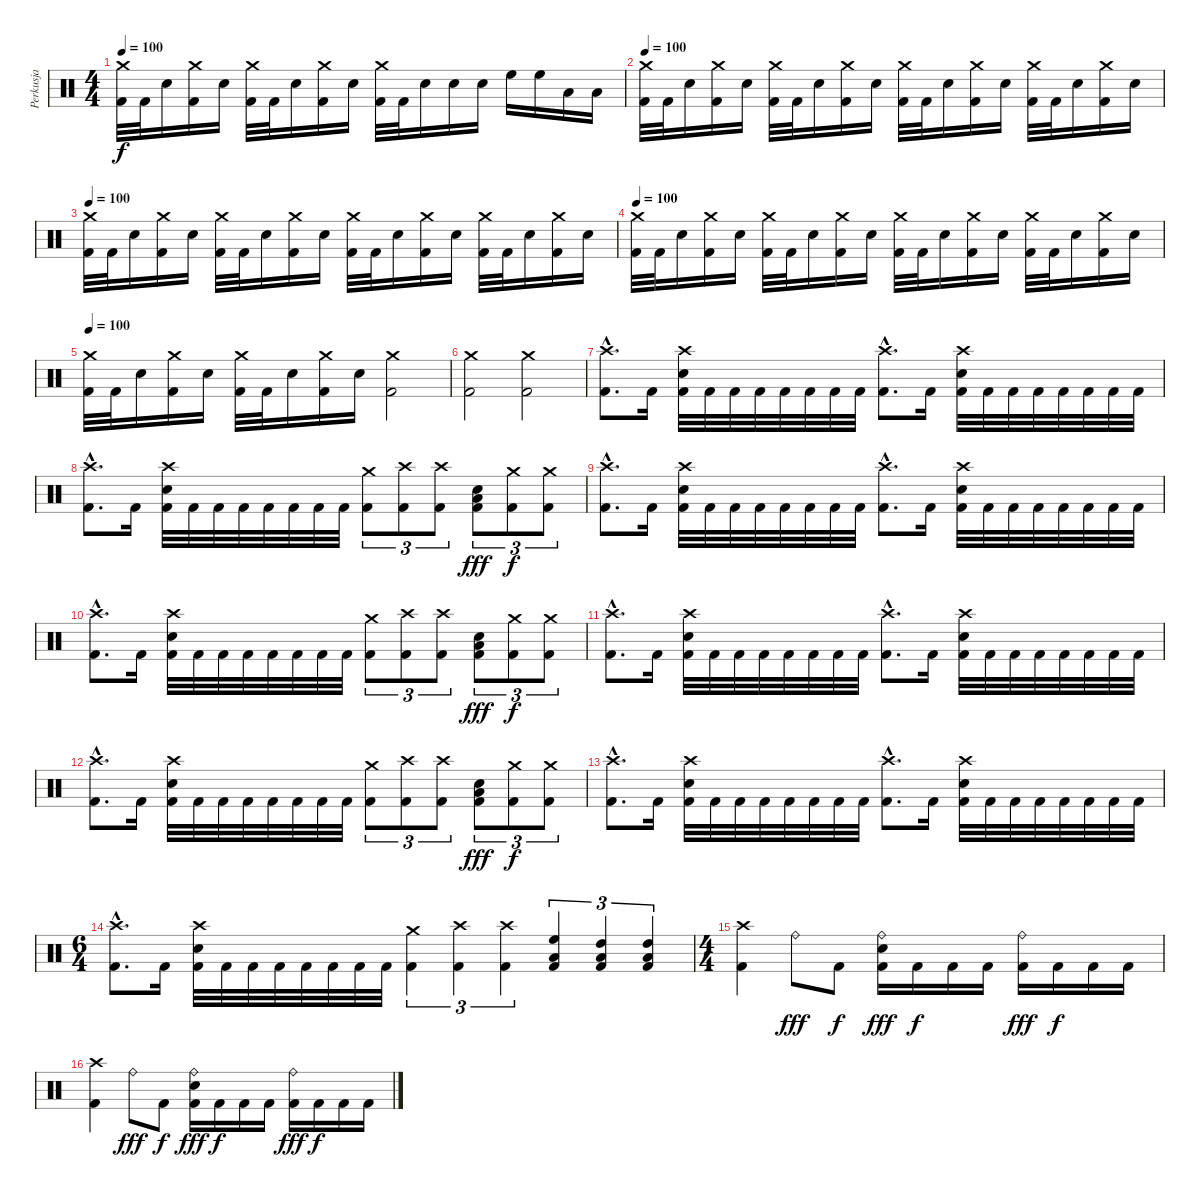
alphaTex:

\track ("Perkusja" "Perkusja") {instrument percussion}
\staff {score}
\articulation defaults
\ts (4 4)
\tempo 100
\clef neutral
\ks c
("Crash medium (hit)" "Kick (hit) 2").32{dy f} "Kick (hit) 2".32 "Electric Snare (hit)".16 ("Crash medium (hit)" "Kick (hit) 2").16 "Electric Snare (hit)".16 ("Crash medium (hit)" "Kick (hit) 2").32 "Kick (hit) 2".32 "Electric Snare (hit)".16 ("Crash medium (hit)" "Kick (hit) 2").16 "Electric Snare (hit)".16 ("Crash medium (hit)" "Kick (hit) 2").32 "Kick (hit) 2".32 "Electric Snare (hit)".16 "Electric Snare (hit)".16 "Electric Snare (hit)".16 "High Floor Tom (hit)".16 "High Floor Tom (hit)".16 "Low Tom (hit)".16 "Low Tom (hit)".16 |
\tempo 100
("Crash medium (hit)" "Kick (hit) 2").32 "Kick (hit) 2".32 "Electric Snare (hit)".16 ("Crash medium (hit)" "Kick (hit) 2").16 "Electric Snare (hit)".16 ("Crash medium (hit)" "Kick (hit) 2").32 "Kick (hit) 2".32 "Electric Snare (hit)".16 ("Crash medium (hit)" "Kick (hit) 2").16 "Electric Snare (hit)".16 ("Crash medium (hit)" "Kick (hit) 2").32 "Kick (hit) 2".32 "Electric Snare (hit)".16 ("Crash medium (hit)" "Kick (hit) 2").16 "Electric Snare (hit)".16 ("Crash medium (hit)" "Kick (hit) 2").32 "Kick (hit) 2".32 "Electric Snare (hit)".16 ("Crash medium (hit)" "Kick (hit) 2").16 "Electric Snare (hit)".16 |
\tempo 100
("Crash medium (hit)" "Kick (hit) 2").32 "Kick (hit) 2".32 "Electric Snare (hit)".16 ("Crash medium (hit)" "Kick (hit) 2").16 "Electric Snare (hit)".16 ("Crash medium (hit)" "Kick (hit) 2").32 "Kick (hit) 2".32 "Electric Snare (hit)".16 ("Crash medium (hit)" "Kick (hit) 2").16 "Electric Snare (hit)".16 ("Crash medium (hit)" "Kick (hit) 2").32 "Kick (hit) 2".32 "Electric Snare (hit)".16 ("Crash medium (hit)" "Kick (hit) 2").16 "Electric Snare (hit)".16 ("Crash medium (hit)" "Kick (hit) 2").32 "Kick (hit) 2".32 "Electric Snare (hit)".16 ("Crash medium (hit)" "Kick (hit) 2").16 "Electric Snare (hit)".16 |
\tempo 100
("Crash medium (hit)" "Kick (hit) 2").32 "Kick (hit) 2".32 "Electric Snare (hit)".16 ("Crash medium (hit)" "Kick (hit) 2").16 "Electric Snare (hit)".16 ("Crash medium (hit)" "Kick (hit) 2").32 "Kick (hit) 2".32 "Electric Snare (hit)".16 ("Crash medium (hit)" "Kick (hit) 2").16 "Electric Snare (hit)".16 ("Crash medium (hit)" "Kick (hit) 2").32 "Kick (hit) 2".32 "Electric Snare (hit)".16 ("Crash medium (hit)" "Kick (hit) 2").16 "Electric Snare (hit)".16 ("Crash medium (hit)" "Kick (hit) 2").32 "Kick (hit) 2".32 "Electric Snare (hit)".16 ("Crash medium (hit)" "Kick (hit) 2").16 "Electric Snare (hit)".16 |
\tempo 100
("Crash medium (hit)" "Kick (hit) 2").32 "Kick (hit) 2".32 "Electric Snare (hit)".16 ("Crash medium (hit)" "Kick (hit) 2").16 "Electric Snare (hit)".16 ("Crash medium (hit)" "Kick (hit) 2").32 "Kick (hit) 2".32 "Electric Snare (hit)".16 ("Crash medium (hit)" "Kick (hit) 2").16 "Electric Snare (hit)".16 ("Crash medium (hit)" "Kick (hit) 2").2 |
("Crash medium (hit)" "Kick (hit) 2").2 ("Crash medium (hit)" "Kick (hit) 2").2 |
("Crash high (hit)"{hac} "Kick (hit) 2"{hac}).8{d} "Kick (hit) 2".16 ("Crash high (hit)" "Electric Snare (hit)" "Kick (hit) 2").32 "Kick (hit) 2".32 "Kick (hit) 2".32 "Kick (hit) 2".32 "Kick (hit) 2".32 "Kick (hit) 2".32 "Kick (hit) 2".32 "Kick (hit) 2".32 ("Crash high (hit)"{hac} "Kick (hit) 2"{hac}).8{d} "Kick (hit) 2".16 ("Crash high (hit)" "Electric Snare (hit)" "Kick (hit) 2").32 "Kick (hit) 2".32 "Kick (hit) 2".32 "Kick (hit) 2".32 "Kick (hit) 2".32 "Kick (hit) 2".32 "Kick (hit) 2".32 "Kick (hit) 2".32 |
("Crash high (hit)"{hac} "Kick (hit) 2"{hac}).8{d} "Kick (hit) 2".16 ("Crash high (hit)" "Electric Snare (hit)" "Kick (hit) 2").32 "Kick (hit) 2".32 "Kick (hit) 2".32 "Kick (hit) 2".32 "Kick (hit) 2".32 "Kick (hit) 2".32 "Kick (hit) 2".32 "Kick (hit) 2".32 ("Crash medium (hit)" "Kick (hit) 2").8{tu (3 2)} ("Crash high (hit)" "Kick (hit) 2").8{tu (3 2)} ("Crash high (hit)" "Kick (hit) 2").8{tu (3 2)} ("Low Floor Tom (hit)" "Electric Snare (hit)" "Kick (hit) 2").8{tu (3 2) dy fff} ("Crash medium (hit)" "Kick (hit) 2").8{tu (3 2) dy f} ("Crash medium (hit)" "Kick (hit) 2").8{tu (3 2)} |
("Crash high (hit)"{hac} "Kick (hit) 2"{hac}).8{d} "Kick (hit) 2".16 ("Crash high (hit)" "Electric Snare (hit)" "Kick (hit) 2").32 "Kick (hit) 2".32 "Kick (hit) 2".32 "Kick (hit) 2".32 "Kick (hit) 2".32 "Kick (hit) 2".32 "Kick (hit) 2".32 "Kick (hit) 2".32 ("Crash high (hit)"{hac} "Kick (hit) 2"{hac}).8{d} "Kick (hit) 2".16 ("Crash high (hit)" "Electric Snare (hit)" "Kick (hit) 2").32 "Kick (hit) 2".32 "Kick (hit) 2".32 "Kick (hit) 2".32 "Kick (hit) 2".32 "Kick (hit) 2".32 "Kick (hit) 2".32 "Kick (hit) 2".32 |
("Crash high (hit)"{hac} "Kick (hit) 2"{hac}).8{d} "Kick (hit) 2".16 ("Crash high (hit)" "Electric Snare (hit)" "Kick (hit) 2").32 "Kick (hit) 2".32 "Kick (hit) 2".32 "Kick (hit) 2".32 "Kick (hit) 2".32 "Kick (hit) 2".32 "Kick (hit) 2".32 "Kick (hit) 2".32 ("Crash medium (hit)" "Kick (hit) 2").8{tu (3 2)} ("Crash high (hit)" "Kick (hit) 2").8{tu (3 2)} ("Crash high (hit)" "Kick (hit) 2").8{tu (3 2)} ("Low Floor Tom (hit)" "Electric Snare (hit)" "Kick (hit) 2").8{tu (3 2) dy fff} ("Crash medium (hit)" "Kick (hit) 2").8{tu (3 2) dy f} ("Crash medium (hit)" "Kick (hit) 2").8{tu (3 2)} |
("Crash high (hit)"{hac} "Kick (hit) 2"{hac}).8{d} "Kick (hit) 2".16 ("Crash high (hit)" "Electric Snare (hit)" "Kick (hit) 2").32 "Kick (hit) 2".32 "Kick (hit) 2".32 "Kick (hit) 2".32 "Kick (hit) 2".32 "Kick (hit) 2".32 "Kick (hit) 2".32 "Kick (hit) 2".32 ("Crash high (hit)"{hac} "Kick (hit) 2"{hac}).8{d} "Kick (hit) 2".16 ("Crash high (hit)" "Electric Snare (hit)" "Kick (hit) 2").32 "Kick (hit) 2".32 "Kick (hit) 2".32 "Kick (hit) 2".32 "Kick (hit) 2".32 "Kick (hit) 2".32 "Kick (hit) 2".32 "Kick (hit) 2".32 |
("Crash high (hit)"{hac} "Kick (hit) 2"{hac}).8{d} "Kick (hit) 2".16 ("Crash high (hit)" "Electric Snare (hit)" "Kick (hit) 2").32 "Kick (hit) 2".32 "Kick (hit) 2".32 "Kick (hit) 2".32 "Kick (hit) 2".32 "Kick (hit) 2".32 "Kick (hit) 2".32 "Kick (hit) 2".32 ("Crash medium (hit)" "Kick (hit) 2").8{tu (3 2)} ("Crash high (hit)" "Kick (hit) 2").8{tu (3 2)} ("Crash high (hit)" "Kick (hit) 2").8{tu (3 2)} ("Low Floor Tom (hit)" "Electric Snare (hit)" "Kick (hit) 2").8{tu (3 2) dy fff} ("Crash medium (hit)" "Kick (hit) 2").8{tu (3 2) dy f} ("Crash medium (hit)" "Kick (hit) 2").8{tu (3 2)} |
("Crash high (hit)"{hac} "Kick (hit) 2"{hac}).8{d} "Kick (hit) 2".16 ("Crash high (hit)" "Electric Snare (hit)" "Kick (hit) 2").32 "Kick (hit) 2".32 "Kick (hit) 2".32 "Kick (hit) 2".32 "Kick (hit) 2".32 "Kick (hit) 2".32 "Kick (hit) 2".32 "Kick (hit) 2".32 ("Crash high (hit)"{hac} "Kick (hit) 2"{hac}).8{d} "Kick (hit) 2".16 ("Crash high (hit)" "Electric Snare (hit)" "Kick (hit) 2").32 "Kick (hit) 2".32 "Kick (hit) 2".32 "Kick (hit) 2".32 "Kick (hit) 2".32 "Kick (hit) 2".32 "Kick (hit) 2".32 "Kick (hit) 2".32 |
\ts (6 4)
("Crash high (hit)"{hac} "Kick (hit) 2"{hac}).8{d} "Kick (hit) 2".16 ("Crash high (hit)" "Electric Snare (hit)" "Kick (hit) 2").32 "Kick (hit) 2".32 "Kick (hit) 2".32 "Kick (hit) 2".32 "Kick (hit) 2".32 "Kick (hit) 2".32 "Kick (hit) 2".32 "Kick (hit) 2".32 ("Crash medium (hit)" "Kick (hit) 2").4{tu (3 2)} ("Crash high (hit)" "Kick (hit) 2").4{tu (3 2)} ("Crash high (hit)" "Kick (hit) 2").4{tu (3 2)} ("Low Floor Tom (hit)" "High Floor Tom (hit)" "Kick (hit) 2").4{tu (3 2)} ("Low Floor Tom (hit)" "High Tom (hit)" "Kick (hit) 2").4{tu (3 2)} ("Low Floor Tom (hit)" "High Tom (hit)" "Kick (hit) 2").4{tu (3 2)} |
\ts (4 4)
("Crash high (hit)" "Kick (hit) 2").4 "Ride (bell)".8{dy fff} "Kick (hit) 2".8{dy f} ("Ride (bell)" "Electric Snare (hit)" "Kick (hit) 2").16{dy fff} "Kick (hit) 2".16{dy f} "Kick (hit) 2".16 "Kick (hit) 2".16 ("Ride (bell)" "Kick (hit) 2").16{dy fff} "Kick (hit) 2".16{dy f} "Kick (hit) 2".16 "Kick (hit) 2".16 |
("Crash high (hit)" "Kick (hit) 2").4 "Ride (bell)".8{dy fff} "Kick (hit) 2".8{dy f} ("Ride (bell)" "Electric Snare (hit)" "Kick (hit) 2").16{dy fff} "Kick (hit) 2".16{dy f} "Kick (hit) 2".16 "Kick (hit) 2".16 ("Ride (bell)" "Kick (hit) 2").16{dy fff} "Kick (hit) 2".16{dy f} "Kick (hit) 2".16 "Kick (hit) 2".16
